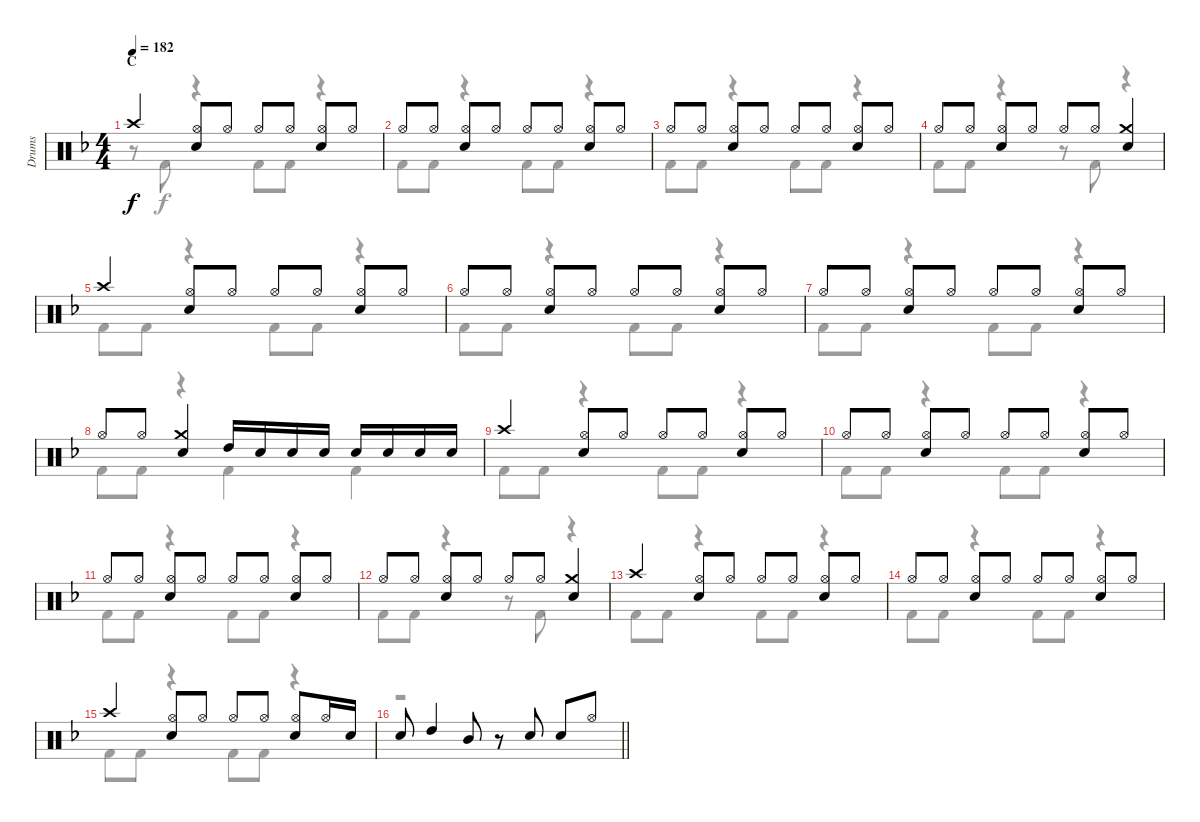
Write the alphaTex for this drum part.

\track ("Drums" "Drums") {instrument percussion}
\staff {score}
\articulation defaults
\voice
\ts (4 4)
\section ("" "C")
\tempo 182
\clef neutral
\ks f "Crash high (hit)"{t}.4{dy f}
("Hi-Hat (open)" "Snare (hit) 2").8 "Hi-Hat (open)".8 "Hi-Hat (open)".8 "Hi-Hat (open)".8 ("Hi-Hat (open)" "Snare (hit) 2").8 "Hi-Hat (open)".8 |
"Hi-Hat (open)".8 "Hi-Hat (open)".8 ("Hi-Hat (open)" "Snare (hit) 2").8 "Hi-Hat (open)".8 "Hi-Hat (open)".8 "Hi-Hat (open)".8 ("Hi-Hat (open)" "Snare (hit) 2").8 "Hi-Hat (open)".8 |
"Hi-Hat (open)".8 "Hi-Hat (open)".8 ("Hi-Hat (open)" "Snare (hit) 2").8 "Hi-Hat (open)".8 "Hi-Hat (open)".8 "Hi-Hat (open)".8 ("Hi-Hat (open)" "Snare (hit) 2").8 "Hi-Hat (open)".8 |
"Hi-Hat (open)".8 "Hi-Hat (open)".8 ("Hi-Hat (open)" "Snare (hit) 2").8 "Hi-Hat (open)".8 "Hi-Hat (open)".8 "Hi-Hat (open)".8 ("Crash medium (hit)" "Snare (hit) 2").4 |
"Crash high (hit)".4 ("Hi-Hat (open)" "Snare (hit) 2").8 "Hi-Hat (open)".8 "Hi-Hat (open)".8 "Hi-Hat (open)".8 ("Hi-Hat (open)" "Snare (hit) 2").8 "Hi-Hat (open)".8 |
"Hi-Hat (open)".8 "Hi-Hat (open)".8 ("Hi-Hat (open)" "Snare (hit) 2").8 "Hi-Hat (open)".8 "Hi-Hat (open)".8 "Hi-Hat (open)".8 ("Hi-Hat (open)" "Snare (hit) 2").8 "Hi-Hat (open)".8 |
"Hi-Hat (open)".8 "Hi-Hat (open)".8 ("Hi-Hat (open)" "Snare (hit) 2").8 "Hi-Hat (open)".8 "Hi-Hat (open)".8 "Hi-Hat (open)".8 ("Hi-Hat (open)" "Snare (hit) 2").8 "Hi-Hat (open)".8 |
"Hi-Hat (open)".8 "Hi-Hat (open)".8 ("Crash medium (hit)" "Snare (hit) 2").4 "High Tom (hit)".16 "Snare (hit) 2".16 "Snare (hit) 2".16 "Snare (hit) 2".16 "Snare (hit) 2".16 "Snare (hit) 2".16 "Snare (hit) 2".16 "Snare (hit) 2".16 |
"Crash high (hit)".4 ("Hi-Hat (open)" "Snare (hit) 2").8 "Hi-Hat (open)".8 "Hi-Hat (open)".8 "Hi-Hat (open)".8 ("Hi-Hat (open)" "Snare (hit) 2").8 "Hi-Hat (open)".8 |
"Hi-Hat (open)".8 "Hi-Hat (open)".8 ("Hi-Hat (open)" "Snare (hit) 2").8 "Hi-Hat (open)".8 "Hi-Hat (open)".8 "Hi-Hat (open)".8 ("Hi-Hat (open)" "Snare (hit) 2").8 "Hi-Hat (open)".8 |
"Hi-Hat (open)".8 "Hi-Hat (open)".8 ("Hi-Hat (open)" "Snare (hit) 2").8 "Hi-Hat (open)".8 "Hi-Hat (open)".8 "Hi-Hat (open)".8 ("Hi-Hat (open)" "Snare (hit) 2").8 "Hi-Hat (open)".8 |
"Hi-Hat (open)".8 "Hi-Hat (open)".8 ("Hi-Hat (open)" "Snare (hit) 2").8 "Hi-Hat (open)".8 "Hi-Hat (open)".8 "Hi-Hat (open)".8 ("Crash medium (hit)" "Snare (hit) 2").4 |
"Crash high (hit)".4 ("Hi-Hat (open)" "Snare (hit) 2").8 "Hi-Hat (open)".8 "Hi-Hat (open)".8 "Hi-Hat (open)".8 ("Hi-Hat (open)" "Snare (hit) 2").8 "Hi-Hat (open)".8 |
"Hi-Hat (open)".8 "Hi-Hat (open)".8 ("Hi-Hat (open)" "Snare (hit) 2").8 "Hi-Hat (open)".8 "Hi-Hat (open)".8 "Hi-Hat (open)".8 ("Hi-Hat (open)" "Snare (hit) 2").8 "Hi-Hat (open)".8 |
"Crash high (hit)".4 ("Hi-Hat (open)" "Snare (hit) 2").8 "Hi-Hat (open)".8 "Hi-Hat (open)".8 "Hi-Hat (open)".8 ("Hi-Hat (open)" "Snare (hit) 2").8 "Hi-Hat (open)".16 "Snare (hit) 2".16 |
\barLineRight lightlight "Snare (hit) 2".8 "High Tom (hit)".4 "Mid Tom (hit)".8
r.8 "Snare (hit) 2".8 "Snare (hit) 2".8 "Hi-Hat (open)".8
\voice
\clef neutral
\ottava regular
\simile none
\ks f
r.8{dy f} "Kick (hit) 2".8 r.4 "Kick (hit) 2".8 "Kick (hit) 2".8 r.4 |
"Kick (hit) 2".8 "Kick (hit) 2".8 r.4 "Kick (hit) 2".8 "Kick (hit) 2".8 r.4 |
"Kick (hit) 2".8 "Kick (hit) 2".8 r.4 "Kick (hit) 2".8 "Kick (hit) 2".8 r.4 |
"Kick (hit) 2".8 "Kick (hit) 2".8 r.4 r.8 "Kick (hit) 2".8 r.4 |
"Kick (hit) 2".8 "Kick (hit) 2".8 r.4 "Kick (hit) 2".8 "Kick (hit) 2".8 r.4 |
"Kick (hit) 2".8 "Kick (hit) 2".8 r.4 "Kick (hit) 2".8 "Kick (hit) 2".8 r.4 |
"Kick (hit) 2".8 "Kick (hit) 2".8 r.4 "Kick (hit) 2".8 "Kick (hit) 2".8 r.4 |
"Kick (hit) 2".8 "Kick (hit) 2".8 r.4 "Kick (hit) 2".4 "Kick (hit) 2".4 |
"Kick (hit) 2".8 "Kick (hit) 2".8 r.4 "Kick (hit) 2".8 "Kick (hit) 2".8 r.4 |
"Kick (hit) 2".8 "Kick (hit) 2".8 r.4 "Kick (hit) 2".8 "Kick (hit) 2".8 r.4 |
"Kick (hit) 2".8 "Kick (hit) 2".8 r.4 "Kick (hit) 2".8 "Kick (hit) 2".8 r.4 |
"Kick (hit) 2".8 "Kick (hit) 2".8 r.4 r.8 "Kick (hit) 2".8 r.4 |
"Kick (hit) 2".8 "Kick (hit) 2".8 r.4 "Kick (hit) 2".8 "Kick (hit) 2".8 r.4 |
"Kick (hit) 2".8 "Kick (hit) 2".8 r.4 "Kick (hit) 2".8 "Kick (hit) 2".8 r.4 |
"Kick (hit) 2".8 "Kick (hit) 2".8 r.4 "Kick (hit) 2".8 "Kick (hit) 2".8 r.4 |
\barLineRight lightlight
r.1
